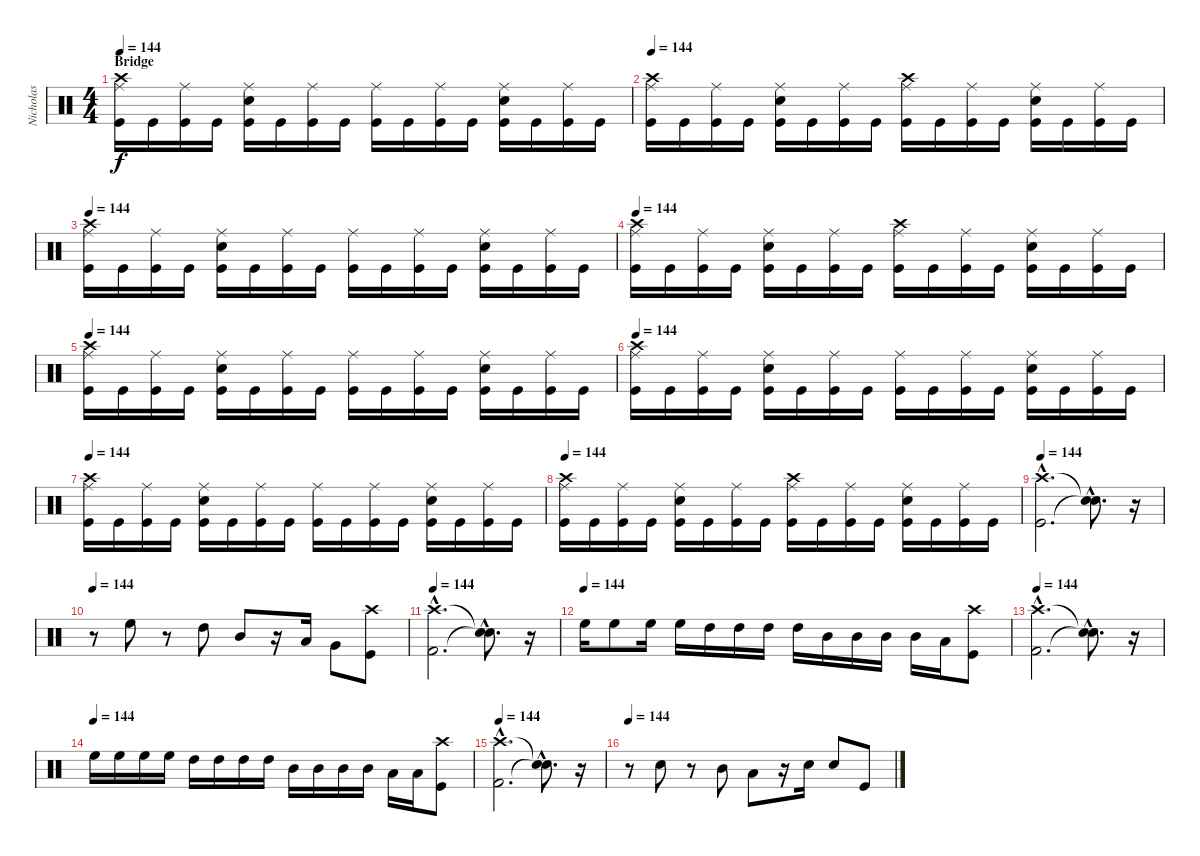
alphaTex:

\track ("Nicholas" "Nicholas") {instrument percussion}
\staff {score}
\articulation defaults
\ts (4 4)
\section ("" "Bridge")
\tempo 144
\clef neutral
\ks c
("Kick (hit)" "Ride (middle)" "Crash high (hit)").16{dy f} "Kick (hit)".16 ("Kick (hit)" "Ride (middle)").16 "Kick (hit)".16 ("Kick (hit)" "Snare (hit) 2" "Ride (middle)").16 "Kick (hit)".16 ("Kick (hit)" "Ride (middle)").16 "Kick (hit)".16 ("Kick (hit)" "Ride (middle)").16 "Kick (hit)".16 ("Kick (hit)" "Ride (middle)").16 "Kick (hit)".16 ("Kick (hit)" "Snare (hit) 2" "Ride (middle)").16 "Kick (hit)".16 ("Kick (hit)" "Ride (middle)").16 "Kick (hit)".16 |
\tempo 144
("Kick (hit)" "Ride (middle)" "Crash high (hit)").16 "Kick (hit)".16 ("Kick (hit)" "Ride (middle)").16 "Kick (hit)".16 ("Kick (hit)" "Snare (hit) 2" "Ride (middle)").16 "Kick (hit)".16 ("Kick (hit)" "Ride (middle)").16 "Kick (hit)".16 ("Kick (hit)" "Ride (middle)" "Crash high (hit)").16 "Kick (hit)".16 ("Kick (hit)" "Ride (middle)").16 "Kick (hit)".16 ("Kick (hit)" "Snare (hit) 2" "Ride (middle)").16 "Kick (hit)".16 ("Kick (hit)" "Ride (middle)").16 "Kick (hit)".16 |
\tempo 144
("Kick (hit)" "Ride (middle)" "Crash high (hit)").16 "Kick (hit)".16 ("Kick (hit)" "Ride (middle)").16 "Kick (hit)".16 ("Kick (hit)" "Snare (hit) 2" "Ride (middle)").16 "Kick (hit)".16 ("Kick (hit)" "Ride (middle)").16 "Kick (hit)".16 ("Kick (hit)" "Ride (middle)").16 "Kick (hit)".16 ("Kick (hit)" "Ride (middle)").16 "Kick (hit)".16 ("Kick (hit)" "Snare (hit) 2" "Ride (middle)").16 "Kick (hit)".16 ("Kick (hit)" "Ride (middle)").16 "Kick (hit)".16 |
\tempo 144
("Kick (hit)" "Ride (middle)" "Crash high (hit)").16 "Kick (hit)".16 ("Kick (hit)" "Ride (middle)").16 "Kick (hit)".16 ("Kick (hit)" "Snare (hit) 2" "Ride (middle)").16 "Kick (hit)".16 ("Kick (hit)" "Ride (middle)").16 "Kick (hit)".16 ("Kick (hit)" "Ride (middle)" "Crash high (hit)").16 "Kick (hit)".16 ("Kick (hit)" "Ride (middle)").16 "Kick (hit)".16 ("Kick (hit)" "Snare (hit) 2" "Ride (middle)").16 "Kick (hit)".16 ("Kick (hit)" "Ride (middle)").16 "Kick (hit)".16 |
\tempo 144
("Kick (hit)" "Ride (middle)" "Crash high (hit)").16 "Kick (hit)".16 ("Kick (hit)" "Ride (middle)").16 "Kick (hit)".16 ("Kick (hit)" "Snare (hit) 2" "Ride (middle)").16 "Kick (hit)".16 ("Kick (hit)" "Ride (middle)").16 "Kick (hit)".16 ("Kick (hit)" "Ride (middle)").16 "Kick (hit)".16 ("Kick (hit)" "Ride (middle)").16 "Kick (hit)".16 ("Kick (hit)" "Snare (hit) 2" "Ride (middle)").16 "Kick (hit)".16 ("Kick (hit)" "Ride (middle)").16 "Kick (hit)".16 |
\tempo 144
("Kick (hit)" "Ride (middle)" "Crash high (hit)").16 "Kick (hit)".16 ("Kick (hit)" "Ride (middle)").16 "Kick (hit)".16 ("Kick (hit)" "Snare (hit) 2" "Ride (middle)").16 "Kick (hit)".16 ("Kick (hit)" "Ride (middle)").16 "Kick (hit)".16 ("Kick (hit)" "Ride (middle)").16 "Kick (hit)".16 ("Kick (hit)" "Ride (middle)").16 "Kick (hit)".16 ("Kick (hit)" "Snare (hit) 2" "Ride (middle)").16 "Kick (hit)".16 ("Kick (hit)" "Ride (middle)").16 "Kick (hit)".16 |
\tempo 144
("Kick (hit)" "Ride (middle)" "Crash high (hit)").16 "Kick (hit)".16 ("Kick (hit)" "Ride (middle)").16 "Kick (hit)".16 ("Kick (hit)" "Snare (hit) 2" "Ride (middle)").16 "Kick (hit)".16 ("Kick (hit)" "Ride (middle)").16 "Kick (hit)".16 ("Kick (hit)" "Ride (middle)").16 "Kick (hit)".16 ("Kick (hit)" "Ride (middle)").16 "Kick (hit)".16 ("Kick (hit)" "Snare (hit) 2" "Ride (middle)").16 "Kick (hit)".16 ("Kick (hit)" "Ride (middle)").16 "Kick (hit)".16 |
\tempo 144
("Kick (hit)" "Ride (middle)" "Crash high (hit)").16 "Kick (hit)".16 ("Kick (hit)" "Ride (middle)").16 "Kick (hit)".16 ("Kick (hit)" "Snare (hit) 2" "Ride (middle)").16 "Kick (hit)".16 ("Kick (hit)" "Ride (middle)").16 "Kick (hit)".16 ("Kick (hit)" "Ride (middle)" "Crash high (hit)").16 "Kick (hit)".16 ("Kick (hit)" "Ride (middle)").16 "Kick (hit)".16 ("Kick (hit)" "Snare (hit) 2" "Ride (middle)").16 "Kick (hit)".16 ("Kick (hit)" "Ride (middle)").16 "Kick (hit)".16 |
\tempo 144
("Kick (hit)"{hac} "Crash high (hit)"{hac}).2{d} ("Snare (hit)"{hac t} "Snare (hit)"{hac t}).8{d} r.16 |
\tempo 144
r.8 "High Floor Tom (hit)".8 r.8 "High Tom (hit)".8 "Mid Tom (hit)".8 r.16 "Low Tom (hit)".16 "Very Low Tom (hit)".8 ("Kick (hit)" "Crash high (hit)").8 |
\tempo 144
("Kick (hit) 2"{hac} "Crash high (hit)"{hac}).2{d} ("Snare (hit)"{hac t} "Snare (hit)"{hac t}).8{d} r.16 |
\tempo (144)
"High Floor Tom (hit)".16 "High Floor Tom (hit)".8 "High Floor Tom (hit)".16 "High Floor Tom (hit)".16 "High Tom (hit)".16 "High Tom (hit)".16 "High Tom (hit)".16 "High Tom (hit)".16 "Mid Tom (hit)".16 "Mid Tom (hit)".16 "Mid Tom (hit)".16 "Mid Tom (hit)".16 "Low Tom (hit)".16 ("Kick (hit)" "Crash high (hit)").8 |
\tempo 144
("Kick (hit) 2"{hac} "Crash high (hit)"{hac}).2{d} ("Snare (hit)"{hac t} "Snare (hit)"{hac t}).8{d} r.16 |
\tempo (144)
"High Floor Tom (hit)".16 "High Floor Tom (hit)".16 "High Floor Tom (hit)".16 "High Floor Tom (hit)".16 "High Tom (hit)".16 "High Tom (hit)".16 "High Tom (hit)".16 "High Tom (hit)".16 "Mid Tom (hit)".16 "Mid Tom (hit)".16 "Mid Tom (hit)".16 "Mid Tom (hit)".16 "Low Tom (hit)".16 "Low Tom (hit)".16 ("Kick (hit)" "Crash high (hit)").8 |
\tempo 144
("Kick (hit) 2"{hac} "Crash high (hit)"{hac}).2{d} ("Snare (hit)"{hac t} "Snare (hit)"{hac t}).8{d} r.16 |
\tempo 144
r.8 "Snare (hit) 2".8 r.8 "Mid Tom (hit)".8 "Low Tom (hit)".8 r.16 "Snare (hit) 2".16 "Snare (hit) 2".8 "Kick (hit)".8
